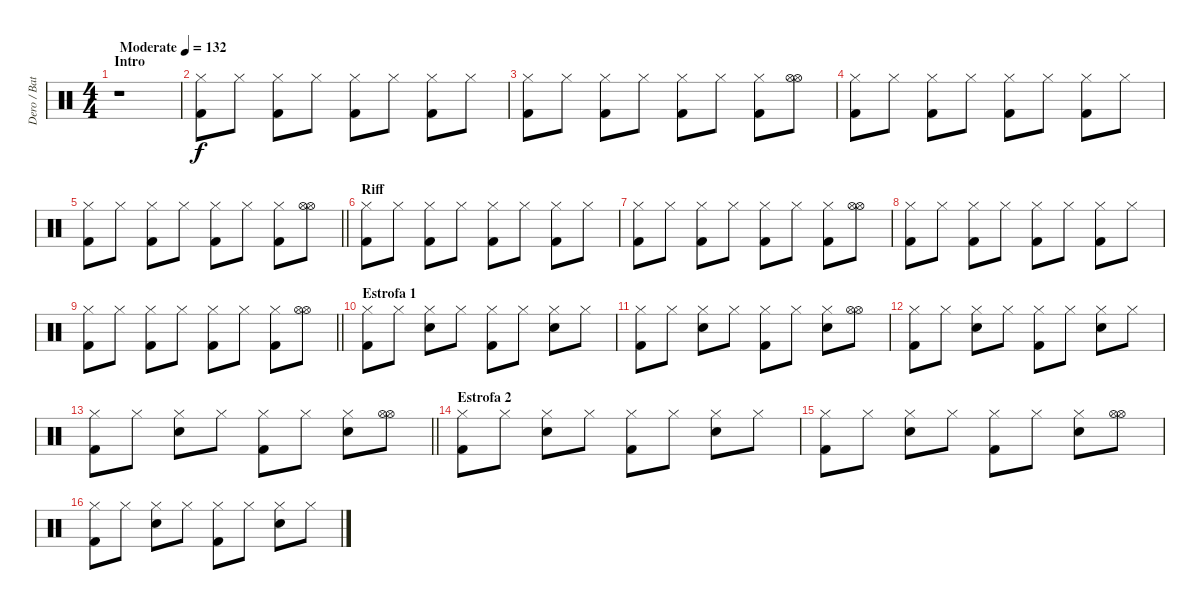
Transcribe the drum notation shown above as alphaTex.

\track ("Dero / Bateria" "Dero / Bat") {instrument percussion}
\staff {score}
\articulation defaults
\ts (4 4)
\section ("" "Intro")
\tempo (132 "Moderate")
\clef neutral
\ks c
r.1{dy f} |
("Hi-Hat (closed)" "Kick (hit) 2").8 "Hi-Hat (closed)".8 ("Hi-Hat (closed)" "Kick (hit) 2").8 "Hi-Hat (closed)".8 ("Hi-Hat (closed)" "Kick (hit) 2").8 "Hi-Hat (closed)".8 ("Hi-Hat (closed)" "Kick (hit) 2").8 "Hi-Hat (closed)".8 |
("Hi-Hat (closed)" "Kick (hit) 2").8 "Hi-Hat (closed)".8 ("Hi-Hat (closed)" "Kick (hit) 2").8 "Hi-Hat (closed)".8 ("Hi-Hat (closed)" "Kick (hit) 2").8 "Hi-Hat (closed)".8 ("Hi-Hat (closed)" "Kick (hit) 2").8 ("Hi-Hat (open)" "Hi-Hat (open)").8 |
("Hi-Hat (closed)" "Kick (hit) 2").8 "Hi-Hat (closed)".8 ("Hi-Hat (closed)" "Kick (hit) 2").8 "Hi-Hat (closed)".8 ("Hi-Hat (closed)" "Kick (hit) 2").8 "Hi-Hat (closed)".8 ("Hi-Hat (closed)" "Kick (hit) 2").8 "Hi-Hat (closed)".8 |
\barLineRight lightlight
("Hi-Hat (closed)" "Kick (hit) 2").8 "Hi-Hat (closed)".8 ("Hi-Hat (closed)" "Kick (hit) 2").8 "Hi-Hat (closed)".8 ("Hi-Hat (closed)" "Kick (hit) 2").8 "Hi-Hat (closed)".8 ("Hi-Hat (closed)" "Kick (hit) 2").8 ("Hi-Hat (open)" "Hi-Hat (open)").8 |
\section ("" "Riff")
("Hi-Hat (closed)" "Kick (hit) 2").8 "Hi-Hat (closed)".8 ("Hi-Hat (closed)" "Kick (hit) 2").8 "Hi-Hat (closed)".8 ("Hi-Hat (closed)" "Kick (hit) 2").8 "Hi-Hat (closed)".8 ("Hi-Hat (closed)" "Kick (hit) 2").8 "Hi-Hat (closed)".8 |
("Hi-Hat (closed)" "Kick (hit) 2").8 "Hi-Hat (closed)".8 ("Hi-Hat (closed)" "Kick (hit) 2").8 "Hi-Hat (closed)".8 ("Hi-Hat (closed)" "Kick (hit) 2").8 "Hi-Hat (closed)".8 ("Hi-Hat (closed)" "Kick (hit) 2").8 ("Hi-Hat (open)" "Hi-Hat (open)").8 |
("Hi-Hat (closed)" "Kick (hit) 2").8 "Hi-Hat (closed)".8 ("Hi-Hat (closed)" "Kick (hit) 2").8 "Hi-Hat (closed)".8 ("Hi-Hat (closed)" "Kick (hit) 2").8 "Hi-Hat (closed)".8 ("Hi-Hat (closed)" "Kick (hit) 2").8 "Hi-Hat (closed)".8 |
\barLineRight lightlight
("Hi-Hat (closed)" "Kick (hit) 2").8 "Hi-Hat (closed)".8 ("Hi-Hat (closed)" "Kick (hit) 2").8 "Hi-Hat (closed)".8 ("Hi-Hat (closed)" "Kick (hit) 2").8 "Hi-Hat (closed)".8 ("Hi-Hat (closed)" "Kick (hit) 2").8 ("Hi-Hat (open)" "Hi-Hat (open)").8 |
\section ("" "Estrofa 1")
("Hi-Hat (closed)" "Kick (hit) 2").8 "Hi-Hat (closed)".8 ("Hi-Hat (closed)" "Electric Snare (hit)").8 "Hi-Hat (closed)".8 ("Hi-Hat (closed)" "Kick (hit) 2").8 "Hi-Hat (closed)".8 ("Hi-Hat (closed)" "Electric Snare (hit)").8 "Hi-Hat (closed)".8 |
("Hi-Hat (closed)" "Kick (hit) 2").8 "Hi-Hat (closed)".8 ("Hi-Hat (closed)" "Electric Snare (hit)").8 "Hi-Hat (closed)".8 ("Hi-Hat (closed)" "Kick (hit) 2").8 "Hi-Hat (closed)".8 ("Hi-Hat (closed)" "Electric Snare (hit)").8 ("Hi-Hat (open)" "Hi-Hat (open)").8 |
("Hi-Hat (closed)" "Kick (hit) 2").8 "Hi-Hat (closed)".8 ("Hi-Hat (closed)" "Electric Snare (hit)").8 "Hi-Hat (closed)".8 ("Hi-Hat (closed)" "Kick (hit) 2").8 "Hi-Hat (closed)".8 ("Hi-Hat (closed)" "Electric Snare (hit)").8 "Hi-Hat (closed)".8 |
\barLineRight lightlight
("Hi-Hat (closed)" "Kick (hit) 2").8 "Hi-Hat (closed)".8 ("Hi-Hat (closed)" "Electric Snare (hit)").8 "Hi-Hat (closed)".8 ("Hi-Hat (closed)" "Kick (hit) 2").8 "Hi-Hat (closed)".8 ("Hi-Hat (closed)" "Electric Snare (hit)").8 ("Hi-Hat (open)" "Hi-Hat (open)").8 |
\section ("" "Estrofa 2")
("Hi-Hat (closed)" "Kick (hit) 2").8 "Hi-Hat (closed)".8 ("Hi-Hat (closed)" "Electric Snare (hit)").8 "Hi-Hat (closed)".8 ("Hi-Hat (closed)" "Kick (hit) 2").8 "Hi-Hat (closed)".8 ("Hi-Hat (closed)" "Electric Snare (hit)").8 "Hi-Hat (closed)".8 |
("Hi-Hat (closed)" "Kick (hit) 2").8 "Hi-Hat (closed)".8 ("Hi-Hat (closed)" "Electric Snare (hit)").8 "Hi-Hat (closed)".8 ("Hi-Hat (closed)" "Kick (hit) 2").8 "Hi-Hat (closed)".8 ("Hi-Hat (closed)" "Electric Snare (hit)").8 ("Hi-Hat (open)" "Hi-Hat (open)").8 |
("Hi-Hat (closed)" "Kick (hit) 2").8 "Hi-Hat (closed)".8 ("Hi-Hat (closed)" "Electric Snare (hit)").8 "Hi-Hat (closed)".8 ("Hi-Hat (closed)" "Kick (hit) 2").8 "Hi-Hat (closed)".8 ("Hi-Hat (closed)" "Electric Snare (hit)").8 "Hi-Hat (closed)".8
